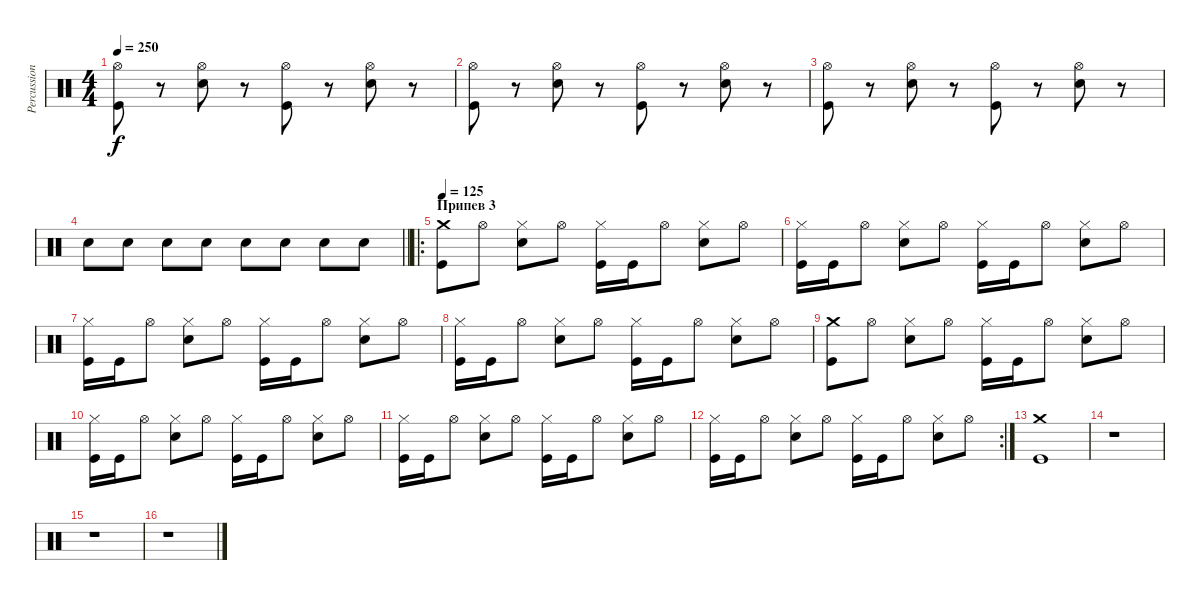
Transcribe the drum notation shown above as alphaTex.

\track ("Percussion" "Percussion") {instrument percussion}
\staff {score}
\articulation defaults
\ts (4 4)
\tempo 250
\clef neutral
\ks c
("Hi-Hat (open)" "Kick (hit)").8{dy f} r.8 ("Hi-Hat (open)" "Electric Snare (hit)").8 r.8 ("Hi-Hat (open)" "Kick (hit)").8 r.8 ("Hi-Hat (open)" "Electric Snare (hit)").8 r.8 |
("Hi-Hat (open)" "Kick (hit)").8 r.8 ("Hi-Hat (open)" "Electric Snare (hit)").8 r.8 ("Hi-Hat (open)" "Kick (hit)").8 r.8 ("Hi-Hat (open)" "Electric Snare (hit)").8 r.8 |
("Hi-Hat (open)" "Kick (hit)").8 r.8 ("Hi-Hat (open)" "Electric Snare (hit)").8 r.8 ("Hi-Hat (open)" "Kick (hit)").8 r.8 ("Hi-Hat (open)" "Electric Snare (hit)").8 r.8 |
\barLineRight lightlight "Electric Snare (hit)".8 "Electric Snare (hit)".8 "Electric Snare (hit)".8 "Electric Snare (hit)".8 "Electric Snare (hit)".8 "Electric Snare (hit)".8 "Electric Snare (hit)".8 "Electric Snare (hit)".8
|
\ro
\section ("" "Припев 3")
\tempo 125
("Crash medium (hit)" "Kick (hit)").8 "Hi-Hat (open)".8 ("Hi-Hat (closed)" "Electric Snare (hit)").8 "Hi-Hat (open)".8 ("Hi-Hat (closed)" "Kick (hit)").16 "Kick (hit)".16 "Hi-Hat (open)".8 ("Hi-Hat (closed)" "Electric Snare (hit)").8 "Hi-Hat (open)".8 |
("Hi-Hat (closed)" "Kick (hit)").16 "Kick (hit)".16 "Hi-Hat (open)".8 ("Hi-Hat (closed)" "Electric Snare (hit)").8 "Hi-Hat (open)".8 ("Hi-Hat (closed)" "Kick (hit)").16 "Kick (hit)".16 "Hi-Hat (open)".8 ("Hi-Hat (closed)" "Electric Snare (hit)").8 "Hi-Hat (open)".8 |
("Hi-Hat (closed)" "Kick (hit)").16 "Kick (hit)".16 "Hi-Hat (open)".8 ("Hi-Hat (closed)" "Electric Snare (hit)").8 "Hi-Hat (open)".8 ("Hi-Hat (closed)" "Kick (hit)").16 "Kick (hit)".16 "Hi-Hat (open)".8 ("Hi-Hat (closed)" "Electric Snare (hit)").8 "Hi-Hat (open)".8 |
("Hi-Hat (closed)" "Kick (hit)").16 "Kick (hit)".16 "Hi-Hat (open)".8 ("Hi-Hat (closed)" "Electric Snare (hit)").8 "Hi-Hat (open)".8 ("Hi-Hat (closed)" "Kick (hit)").16 "Kick (hit)".16 "Hi-Hat (open)".8 ("Hi-Hat (closed)" "Electric Snare (hit)").8 "Hi-Hat (open)".8 |
("Crash medium (hit)" "Kick (hit)").8 "Hi-Hat (open)".8 ("Hi-Hat (closed)" "Electric Snare (hit)").8 "Hi-Hat (open)".8 ("Hi-Hat (closed)" "Kick (hit)").16 "Kick (hit)".16 "Hi-Hat (open)".8 ("Hi-Hat (closed)" "Electric Snare (hit)").8 "Hi-Hat (open)".8 |
("Hi-Hat (closed)" "Kick (hit)").16 "Kick (hit)".16 "Hi-Hat (open)".8 ("Hi-Hat (closed)" "Electric Snare (hit)").8 "Hi-Hat (open)".8 ("Hi-Hat (closed)" "Kick (hit)").16 "Kick (hit)".16 "Hi-Hat (open)".8 ("Hi-Hat (closed)" "Electric Snare (hit)").8 "Hi-Hat (open)".8 |
("Hi-Hat (closed)" "Kick (hit)").16 "Kick (hit)".16 "Hi-Hat (open)".8 ("Hi-Hat (closed)" "Electric Snare (hit)").8 "Hi-Hat (open)".8 ("Hi-Hat (closed)" "Kick (hit)").16 "Kick (hit)".16 "Hi-Hat (open)".8 ("Hi-Hat (closed)" "Electric Snare (hit)").8 "Hi-Hat (open)".8 |
\rc 2
("Hi-Hat (closed)" "Kick (hit)").16 "Kick (hit)".16 "Hi-Hat (open)".8 ("Hi-Hat (closed)" "Electric Snare (hit)").8 "Hi-Hat (open)".8 ("Hi-Hat (closed)" "Kick (hit)").16 "Kick (hit)".16 "Hi-Hat (open)".8 ("Hi-Hat (closed)" "Electric Snare (hit)").8 "Hi-Hat (open)".8 |
("Crash medium (hit)" "Kick (hit)").1 |
r.1 |
r.1 |
r.1
